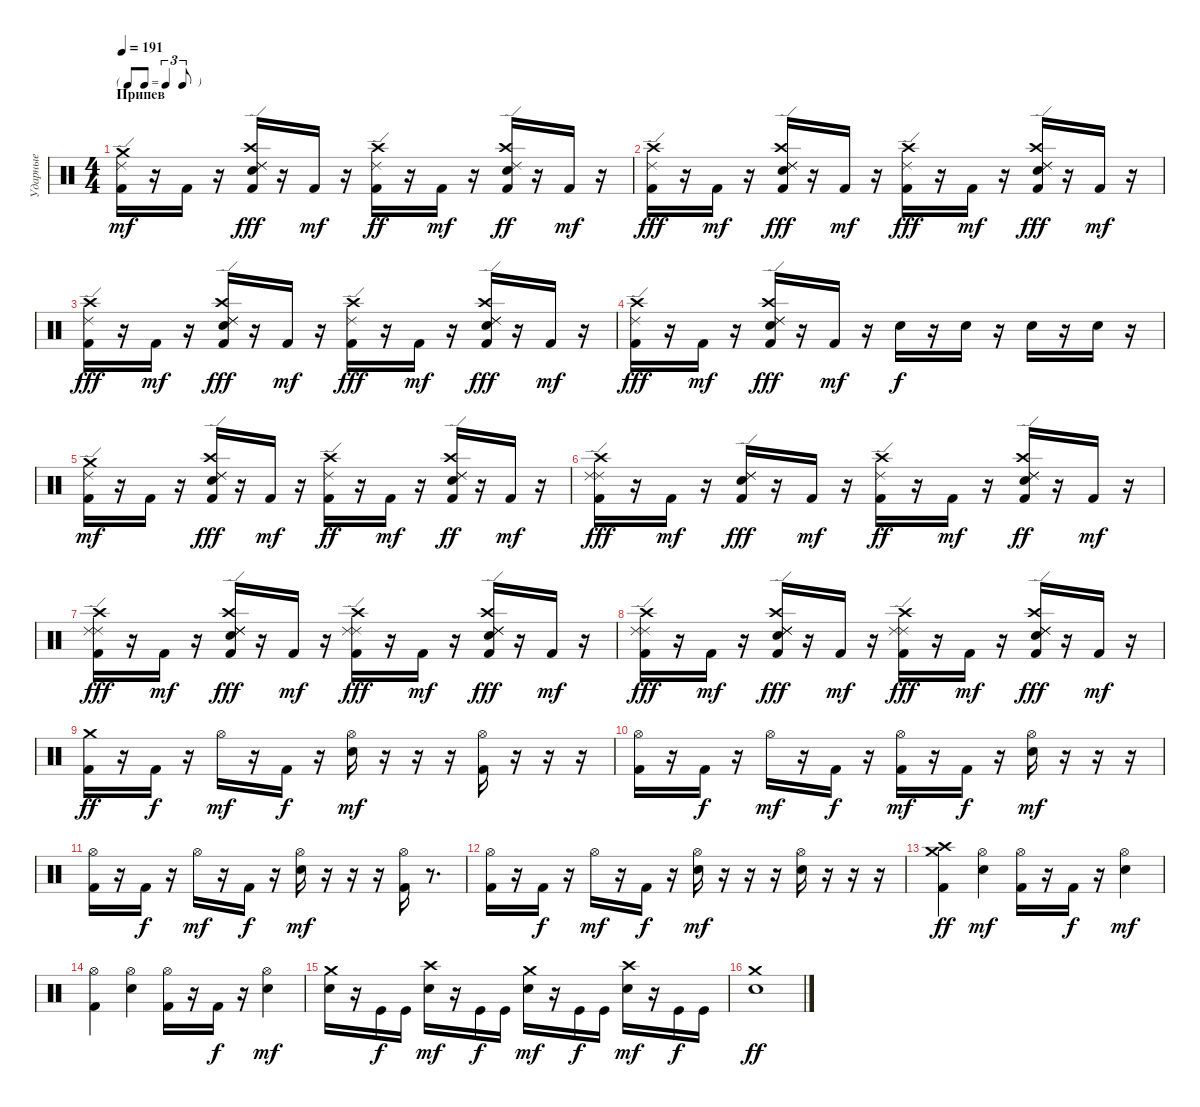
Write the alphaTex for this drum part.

\track ("Ударные" "Ударные") {instrument percussion}
\staff {score}
\articulation defaults
\ts (4 4)
\tf triplet8th
\section ("" "Припев")
\tempo 191
\clef neutral
\ks c
("Crash medium (hit)" "Kick (hit) 2" "Ride (edge) 2").16{dy mf} r.16 "Kick (hit) 2".16 r.16 ("Crash high (hit)" "Snare (hit) 2" "Kick (hit) 2" "Ride (edge) 2" "Ride (edge) 2").16{dy fff} r.16 "Kick (hit) 2".16{dy mf} r.16 ("Crash high (hit)" "Kick (hit) 2" "Ride (edge) 2").16{dy ff} r.16 "Kick (hit) 2".16{dy mf} r.16 ("Crash high (hit)" "Snare (hit) 2" "Kick (hit) 2" "Ride (edge) 2").16{dy ff} r.16 "Kick (hit) 2".16{dy mf} r.16 |
("Crash high (hit)" "Kick (hit) 2" "Ride (edge) 2").16{dy fff} r.16 "Kick (hit) 2".16{dy mf} r.16 ("Crash high (hit)" "Snare (hit) 2" "Kick (hit) 2" "Ride (edge) 2" "Ride (edge) 2").16{dy fff} r.16 "Kick (hit) 2".16{dy mf} r.16 ("Crash high (hit)" "Kick (hit) 2" "Ride (edge) 2").16{dy fff} r.16 "Kick (hit) 2".16{dy mf} r.16 ("Crash high (hit)" "Snare (hit) 2" "Kick (hit) 2" "Ride (edge) 2" "Ride (edge) 2").16{dy fff} r.16 "Kick (hit) 2".16{dy mf} r.16 |
("Crash high (hit)" "Kick (hit) 2" "Ride (edge) 2").16{dy fff} r.16 "Kick (hit) 2".16{dy mf} r.16 ("Crash high (hit)" "Snare (hit) 2" "Kick (hit) 2" "Ride (edge) 2" "Ride (edge) 2").16{dy fff} r.16 "Kick (hit) 2".16{dy mf} r.16 ("Crash high (hit)" "Kick (hit) 2" "Ride (edge) 2").16{dy fff} r.16 "Kick (hit) 2".16{dy mf} r.16 ("Crash high (hit)" "Snare (hit) 2" "Kick (hit) 2" "Ride (edge) 2" "Ride (edge) 2").16{dy fff} r.16 "Kick (hit) 2".16{dy mf} r.16 |
("Crash high (hit)" "Kick (hit) 2" "Ride (edge) 2").16{dy fff} r.16 "Kick (hit) 2".16{dy mf} r.16 ("Crash high (hit)" "Snare (hit) 2" "Kick (hit) 2" "Ride (edge) 2" "Ride (edge) 2").16{dy fff} r.16 "Kick (hit) 2".16{dy mf} r.16 "Snare (hit) 2".16{dy f} r.16 "Snare (hit) 2".16 r.16 "Snare (hit) 2".16 r.16 "Snare (hit) 2".16 r.16 |
("Crash medium (hit)" "Kick (hit) 2" "Ride (edge) 2").16{dy mf} r.16 "Kick (hit) 2".16 r.16 ("Crash high (hit)" "Snare (hit) 2" "Kick (hit) 2" "Ride (edge) 2" "Ride (edge) 2").16{dy fff} r.16 "Kick (hit) 2".16{dy mf} r.16 ("Crash high (hit)" "Kick (hit) 2" "Ride (edge) 2").16{dy ff} r.16 "Kick (hit) 2".16{dy mf} r.16 ("Crash high (hit)" "Snare (hit) 2" "Kick (hit) 2" "Ride (edge) 2" "Ride (edge) 2").16{dy ff} r.16 "Kick (hit) 2".16{dy mf} r.16 |
("Crash high (hit)" "Kick (hit) 2" "Ride (edge) 2" "Ride (edge) 2").16{dy fff} r.16 "Kick (hit) 2".16{dy mf} r.16 ("Snare (hit) 2" "Kick (hit) 2" "Ride (edge) 2" "Ride (edge) 2").16{dy fff} r.16 "Kick (hit) 2".16{dy mf} r.16 ("Crash high (hit)" "Kick (hit) 2" "Ride (edge) 2").16{dy ff} r.16 "Kick (hit) 2".16{dy mf} r.16 ("Crash high (hit)" "Snare (hit) 2" "Kick (hit) 2" "Ride (edge) 2" "Ride (edge) 2").16{dy ff} r.16 "Kick (hit) 2".16{dy mf} r.16 |
("Crash high (hit)" "Kick (hit) 2" "Ride (edge) 2" "Ride (edge) 2").16{dy fff} r.16 "Kick (hit) 2".16{dy mf} r.16 ("Crash high (hit)" "Snare (hit) 2" "Kick (hit) 2" "Ride (edge) 2" "Ride (edge) 2" "Ride (edge) 2").16{dy fff} r.16 "Kick (hit) 2".16{dy mf} r.16 ("Crash high (hit)" "Kick (hit) 2" "Ride (edge) 2" "Ride (edge) 2").16{dy fff} r.16 "Kick (hit) 2".16{dy mf} r.16 ("Crash high (hit)" "Snare (hit) 2" "Kick (hit) 2" "Ride (edge) 2" "Ride (edge) 2" "Ride (edge) 2").16{dy fff} r.16 "Kick (hit) 2".16{dy mf} r.16 |
("Crash high (hit)" "Kick (hit) 2" "Ride (edge) 2" "Ride (edge) 2").16{dy fff} r.16 "Kick (hit) 2".16{dy mf} r.16 ("Crash high (hit)" "Snare (hit) 2" "Kick (hit) 2" "Ride (edge) 2" "Ride (edge) 2" "Ride (edge) 2").16{dy fff} r.16 "Kick (hit) 2".16{dy mf} r.16 ("Crash high (hit)" "Kick (hit) 2" "Ride (edge) 2" "Ride (edge) 2").16{dy fff} r.16 "Kick (hit) 2".16{dy mf} r.16 ("Crash high (hit)" "Snare (hit) 2" "Kick (hit) 2" "Ride (edge) 2" "Ride (edge) 2" "Ride (edge) 2").16{dy fff} r.16 "Kick (hit) 2".16{dy mf} r.16 |
("Crash medium (hit)" "Kick (hit) 2").16{dy ff} r.16 "Kick (hit) 2".16{dy f} r.16 "Hi-Hat (open)".16{dy mf} r.16 "Kick (hit) 2".16{dy f} r.16 ("Snare (hit) 2" "Hi-Hat (open)").16{dy mf} r.16 r.16 r.16 ("Kick (hit) 2" "Hi-Hat (open)").16 r.16 r.16 r.16 |
("Kick (hit) 2" "Hi-Hat (open)").16 r.16 "Kick (hit) 2".16{dy f} r.16 "Hi-Hat (open)".16{dy mf} r.16 "Kick (hit) 2".16{dy f} r.16 ("Kick (hit) 2" "Hi-Hat (open)").16{dy mf} r.16 "Kick (hit) 2".16{dy f} r.16 ("Snare (hit) 2" "Hi-Hat (open)").16{dy mf} r.16 r.16 r.16 |
("Kick (hit) 2" "Hi-Hat (open)").16 r.16 "Kick (hit) 2".16{dy f} r.16 "Hi-Hat (open)".16{dy mf} r.16 "Kick (hit) 2".16{dy f} r.16 ("Snare (hit) 2" "Hi-Hat (open)").16{dy mf} r.16 r.16 r.16 ("Kick (hit) 2" "Hi-Hat (open)").16 r.8{d} |
("Kick (hit) 2" "Hi-Hat (open)").16 r.16 "Kick (hit) 2".16{dy f} r.16 "Hi-Hat (open)".16{dy mf} r.16 "Kick (hit) 2".16{dy f} r.16 ("Snare (hit) 2" "Hi-Hat (open)").16{dy mf} r.16 r.16 r.16 ("Snare (hit) 2" "Hi-Hat (open)").16 r.16 r.16 r.16 |
("Crash medium (hit)" "Kick (hit) 2" "Crash high (hit)").4{dy ff} ("Snare (hit) 2" "Hi-Hat (open)").4{dy mf} ("Kick (hit) 2" "Hi-Hat (open)").16 r.16 "Kick (hit) 2".16{dy f} r.16 ("Snare (hit) 2" "Hi-Hat (open)").4{dy mf} |
("Kick (hit) 2" "Hi-Hat (open)").4 ("Snare (hit) 2" "Hi-Hat (open)").4 ("Kick (hit) 2" "Hi-Hat (open)").16 r.16 "Kick (hit) 2".16{dy f} r.16 ("Snare (hit) 2" "Hi-Hat (open)").4{dy mf} |
("Crash medium (hit)" "Snare (hit) 2").16 r.16 "Kick (hit)".16{dy f} "Kick (hit)".16 ("Crash high (hit)" "Snare (hit) 2").16{dy mf} r.16 "Kick (hit)".16{dy f} "Kick (hit)".16 ("Crash medium (hit)" "Snare (hit) 2").16{dy mf} r.16 "Kick (hit)".16{dy f} "Kick (hit)".16 ("Crash high (hit)" "Snare (hit) 2").16{dy mf} r.16 "Kick (hit)".16{dy f} "Kick (hit)".16 |
("Crash medium (hit)" "Snare (hit) 2").1{dy ff}
